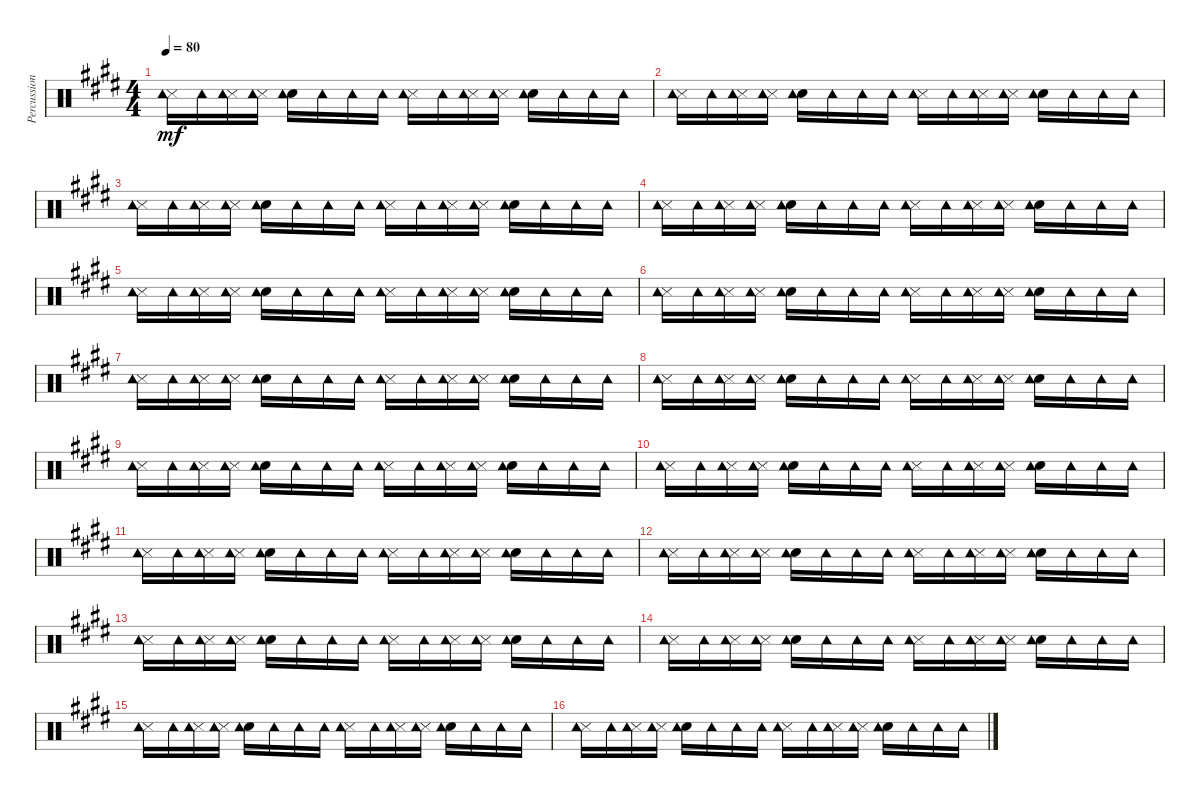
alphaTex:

\track ("Percussion" "Percussion") {instrument percussion}
\staff {score}
\articulation defaults
\ts (4 4)
\tempo 80
\clef neutral
\ks c#minor
("Metronome (hit)" "Tambourine (hit)").16{dy mf} "Tambourine (hit)".16 ("Metronome (hit)" "Tambourine (hit)").16 ("Metronome (hit)" "Tambourine (hit)").16 ("Snare (hit) 2" "Tambourine (hit)").16 "Tambourine (hit)".16 "Tambourine (hit)".16 "Tambourine (hit)".16 ("Metronome (hit)" "Tambourine (hit)").16 "Tambourine (hit)".16 ("Metronome (hit)" "Tambourine (hit)").16 ("Metronome (hit)" "Tambourine (hit)").16 ("Snare (hit) 2" "Tambourine (hit)").16 "Tambourine (hit)".16 "Tambourine (hit)".16 "Tambourine (hit)".16 |
("Metronome (hit)" "Tambourine (hit)").16 "Tambourine (hit)".16 ("Metronome (hit)" "Tambourine (hit)").16 ("Metronome (hit)" "Tambourine (hit)").16 ("Snare (hit) 2" "Tambourine (hit)").16 "Tambourine (hit)".16 "Tambourine (hit)".16 "Tambourine (hit)".16 ("Metronome (hit)" "Tambourine (hit)").16 "Tambourine (hit)".16 ("Metronome (hit)" "Tambourine (hit)").16 ("Metronome (hit)" "Tambourine (hit)").16 ("Snare (hit) 2" "Tambourine (hit)").16 "Tambourine (hit)".16 "Tambourine (hit)".16 "Tambourine (hit)".16 |
("Metronome (hit)" "Tambourine (hit)").16 "Tambourine (hit)".16 ("Metronome (hit)" "Tambourine (hit)").16 ("Metronome (hit)" "Tambourine (hit)").16 ("Snare (hit) 2" "Tambourine (hit)").16 "Tambourine (hit)".16 "Tambourine (hit)".16 "Tambourine (hit)".16 ("Metronome (hit)" "Tambourine (hit)").16 "Tambourine (hit)".16 ("Metronome (hit)" "Tambourine (hit)").16 ("Metronome (hit)" "Tambourine (hit)").16 ("Snare (hit) 2" "Tambourine (hit)").16 "Tambourine (hit)".16 "Tambourine (hit)".16 "Tambourine (hit)".16 |
("Metronome (hit)" "Tambourine (hit)").16 "Tambourine (hit)".16 ("Metronome (hit)" "Tambourine (hit)").16 ("Metronome (hit)" "Tambourine (hit)").16 ("Snare (hit) 2" "Tambourine (hit)").16 "Tambourine (hit)".16 "Tambourine (hit)".16 "Tambourine (hit)".16 ("Metronome (hit)" "Tambourine (hit)").16 "Tambourine (hit)".16 ("Metronome (hit)" "Tambourine (hit)").16 ("Metronome (hit)" "Tambourine (hit)").16 ("Snare (hit) 2" "Tambourine (hit)").16 "Tambourine (hit)".16 "Tambourine (hit)".16 "Tambourine (hit)".16 |
("Metronome (hit)" "Tambourine (hit)").16 "Tambourine (hit)".16 ("Metronome (hit)" "Tambourine (hit)").16 ("Metronome (hit)" "Tambourine (hit)").16 ("Snare (hit) 2" "Tambourine (hit)").16 "Tambourine (hit)".16 "Tambourine (hit)".16 "Tambourine (hit)".16 ("Metronome (hit)" "Tambourine (hit)").16 "Tambourine (hit)".16 ("Metronome (hit)" "Tambourine (hit)").16 ("Metronome (hit)" "Tambourine (hit)").16 ("Snare (hit) 2" "Tambourine (hit)").16 "Tambourine (hit)".16 "Tambourine (hit)".16 "Tambourine (hit)".16 |
("Metronome (hit)" "Tambourine (hit)").16 "Tambourine (hit)".16 ("Metronome (hit)" "Tambourine (hit)").16 ("Metronome (hit)" "Tambourine (hit)").16 ("Snare (hit) 2" "Tambourine (hit)").16 "Tambourine (hit)".16 "Tambourine (hit)".16 "Tambourine (hit)".16 ("Metronome (hit)" "Tambourine (hit)").16 "Tambourine (hit)".16 ("Metronome (hit)" "Tambourine (hit)").16 ("Metronome (hit)" "Tambourine (hit)").16 ("Snare (hit) 2" "Tambourine (hit)").16 "Tambourine (hit)".16 "Tambourine (hit)".16 "Tambourine (hit)".16 |
("Metronome (hit)" "Tambourine (hit)").16 "Tambourine (hit)".16 ("Metronome (hit)" "Tambourine (hit)").16 ("Metronome (hit)" "Tambourine (hit)").16 ("Snare (hit) 2" "Tambourine (hit)").16 "Tambourine (hit)".16 "Tambourine (hit)".16 "Tambourine (hit)".16 ("Metronome (hit)" "Tambourine (hit)").16 "Tambourine (hit)".16 ("Metronome (hit)" "Tambourine (hit)").16 ("Metronome (hit)" "Tambourine (hit)").16 ("Snare (hit) 2" "Tambourine (hit)").16 "Tambourine (hit)".16 "Tambourine (hit)".16 "Tambourine (hit)".16 |
("Metronome (hit)" "Tambourine (hit)").16 "Tambourine (hit)".16 ("Metronome (hit)" "Tambourine (hit)").16 ("Metronome (hit)" "Tambourine (hit)").16 ("Snare (hit) 2" "Tambourine (hit)").16 "Tambourine (hit)".16 "Tambourine (hit)".16 "Tambourine (hit)".16 ("Metronome (hit)" "Tambourine (hit)").16 "Tambourine (hit)".16 ("Metronome (hit)" "Tambourine (hit)").16 ("Metronome (hit)" "Tambourine (hit)").16 ("Snare (hit) 2" "Tambourine (hit)").16 "Tambourine (hit)".16 "Tambourine (hit)".16 "Tambourine (hit)".16 |
("Metronome (hit)" "Tambourine (hit)").16 "Tambourine (hit)".16 ("Metronome (hit)" "Tambourine (hit)").16 ("Metronome (hit)" "Tambourine (hit)").16 ("Snare (hit) 2" "Tambourine (hit)").16 "Tambourine (hit)".16 "Tambourine (hit)".16 "Tambourine (hit)".16 ("Metronome (hit)" "Tambourine (hit)").16 "Tambourine (hit)".16 ("Metronome (hit)" "Tambourine (hit)").16 ("Metronome (hit)" "Tambourine (hit)").16 ("Snare (hit) 2" "Tambourine (hit)").16 "Tambourine (hit)".16 "Tambourine (hit)".16 "Tambourine (hit)".16 |
("Metronome (hit)" "Tambourine (hit)").16 "Tambourine (hit)".16 ("Metronome (hit)" "Tambourine (hit)").16 ("Metronome (hit)" "Tambourine (hit)").16 ("Snare (hit) 2" "Tambourine (hit)").16 "Tambourine (hit)".16 "Tambourine (hit)".16 "Tambourine (hit)".16 ("Metronome (hit)" "Tambourine (hit)").16 "Tambourine (hit)".16 ("Metronome (hit)" "Tambourine (hit)").16 ("Metronome (hit)" "Tambourine (hit)").16 ("Snare (hit) 2" "Tambourine (hit)").16 "Tambourine (hit)".16 "Tambourine (hit)".16 "Tambourine (hit)".16 |
("Metronome (hit)" "Tambourine (hit)").16 "Tambourine (hit)".16 ("Metronome (hit)" "Tambourine (hit)").16 ("Metronome (hit)" "Tambourine (hit)").16 ("Snare (hit) 2" "Tambourine (hit)").16 "Tambourine (hit)".16 "Tambourine (hit)".16 "Tambourine (hit)".16 ("Metronome (hit)" "Tambourine (hit)").16 "Tambourine (hit)".16 ("Metronome (hit)" "Tambourine (hit)").16 ("Metronome (hit)" "Tambourine (hit)").16 ("Snare (hit) 2" "Tambourine (hit)").16 "Tambourine (hit)".16 "Tambourine (hit)".16 "Tambourine (hit)".16 |
("Metronome (hit)" "Tambourine (hit)").16 "Tambourine (hit)".16 ("Metronome (hit)" "Tambourine (hit)").16 ("Metronome (hit)" "Tambourine (hit)").16 ("Snare (hit) 2" "Tambourine (hit)").16 "Tambourine (hit)".16 "Tambourine (hit)".16 "Tambourine (hit)".16 ("Metronome (hit)" "Tambourine (hit)").16 "Tambourine (hit)".16 ("Metronome (hit)" "Tambourine (hit)").16 ("Metronome (hit)" "Tambourine (hit)").16 ("Snare (hit) 2" "Tambourine (hit)").16 "Tambourine (hit)".16 "Tambourine (hit)".16 "Tambourine (hit)".16 |
("Metronome (hit)" "Tambourine (hit)").16 "Tambourine (hit)".16 ("Metronome (hit)" "Tambourine (hit)").16 ("Metronome (hit)" "Tambourine (hit)").16 ("Snare (hit) 2" "Tambourine (hit)").16 "Tambourine (hit)".16 "Tambourine (hit)".16 "Tambourine (hit)".16 ("Metronome (hit)" "Tambourine (hit)").16 "Tambourine (hit)".16 ("Metronome (hit)" "Tambourine (hit)").16 ("Metronome (hit)" "Tambourine (hit)").16 ("Snare (hit) 2" "Tambourine (hit)").16 "Tambourine (hit)".16 "Tambourine (hit)".16 "Tambourine (hit)".16 |
("Metronome (hit)" "Tambourine (hit)").16 "Tambourine (hit)".16 ("Metronome (hit)" "Tambourine (hit)").16 ("Metronome (hit)" "Tambourine (hit)").16 ("Snare (hit) 2" "Tambourine (hit)").16 "Tambourine (hit)".16 "Tambourine (hit)".16 "Tambourine (hit)".16 ("Metronome (hit)" "Tambourine (hit)").16 "Tambourine (hit)".16 ("Metronome (hit)" "Tambourine (hit)").16 ("Metronome (hit)" "Tambourine (hit)").16 ("Snare (hit) 2" "Tambourine (hit)").16 "Tambourine (hit)".16 "Tambourine (hit)".16 "Tambourine (hit)".16 |
("Metronome (hit)" "Tambourine (hit)").16 "Tambourine (hit)".16 ("Metronome (hit)" "Tambourine (hit)").16 ("Metronome (hit)" "Tambourine (hit)").16 ("Snare (hit) 2" "Tambourine (hit)").16 "Tambourine (hit)".16 "Tambourine (hit)".16 "Tambourine (hit)".16 ("Metronome (hit)" "Tambourine (hit)").16 "Tambourine (hit)".16 ("Metronome (hit)" "Tambourine (hit)").16 ("Metronome (hit)" "Tambourine (hit)").16 ("Snare (hit) 2" "Tambourine (hit)").16 "Tambourine (hit)".16 "Tambourine (hit)".16 "Tambourine (hit)".16 |
("Metronome (hit)" "Tambourine (hit)").16 "Tambourine (hit)".16 ("Metronome (hit)" "Tambourine (hit)").16 ("Metronome (hit)" "Tambourine (hit)").16 ("Snare (hit) 2" "Tambourine (hit)").16 "Tambourine (hit)".16 "Tambourine (hit)".16 "Tambourine (hit)".16 ("Metronome (hit)" "Tambourine (hit)").16 "Tambourine (hit)".16 ("Metronome (hit)" "Tambourine (hit)").16 ("Metronome (hit)" "Tambourine (hit)").16 ("Snare (hit) 2" "Tambourine (hit)").16 "Tambourine (hit)".16 "Tambourine (hit)".16 "Tambourine (hit)".16
